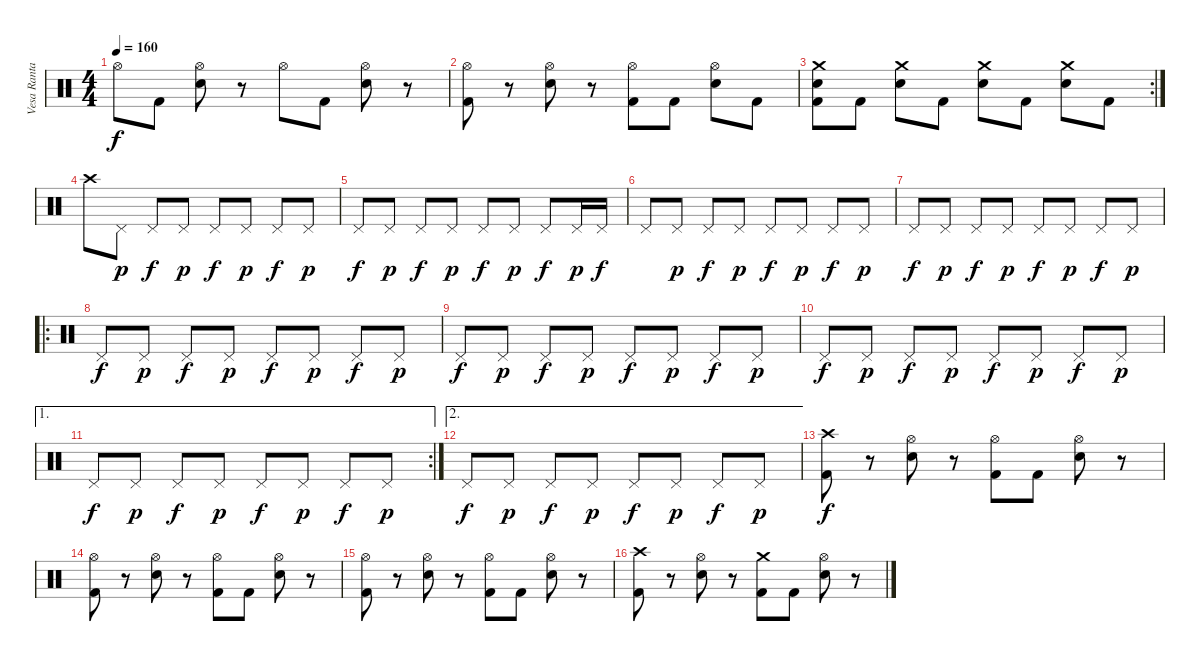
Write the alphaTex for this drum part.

\track ("Vesa Ranta" "Vesa Ranta") {instrument percussion}
\staff {score}
\articulation defaults
\ts (4 4)
\tempo 160
\clef neutral
\ks c "Hi-Hat (open)".8{dy f} "Kick (hit) 2".8
("Hi-Hat (open)" "Electric Snare (hit)").8 r.8 "Hi-Hat (open)".8 "Kick (hit) 2".8 ("Hi-Hat (open)" "Electric Snare (hit)").8 r.8 |
("Hi-Hat (open)" "Kick (hit) 2").8 r.8 ("Hi-Hat (open)" "Electric Snare (hit)").8 r.8 ("Hi-Hat (open)" "Kick (hit) 2").8 "Kick (hit) 2".8 ("Hi-Hat (open)" "Electric Snare (hit)").8 "Kick (hit) 2".8 |
\rc 2
("Crash medium (hit)" "Electric Snare (hit)" "Kick (hit) 2").8 "Kick (hit) 2".8 ("Crash medium (hit)" "Electric Snare (hit)").8 "Kick (hit) 2".8 ("Crash medium (hit)" "Electric Snare (hit)").8 "Kick (hit) 2".8 ("Crash medium (hit)" "Electric Snare (hit)").8 "Kick (hit) 2".8 |
"Crash high (hit)".8 "Pedal Hi-Hat (hit)".8{dy p} "Pedal Hi-Hat (hit)".8{dy f} "Pedal Hi-Hat (hit)".8{dy p} "Pedal Hi-Hat (hit)".8{dy f} "Pedal Hi-Hat (hit)".8{dy p} "Pedal Hi-Hat (hit)".8{dy f} "Pedal Hi-Hat (hit)".8{dy p} |
"Pedal Hi-Hat (hit)".8{dy f} "Pedal Hi-Hat (hit)".8{dy p} "Pedal Hi-Hat (hit)".8{dy f} "Pedal Hi-Hat (hit)".8{dy p} "Pedal Hi-Hat (hit)".8{dy f} "Pedal Hi-Hat (hit)".8{dy p} "Pedal Hi-Hat (hit)".8{dy f} "Pedal Hi-Hat (hit)".16{dy p} "Pedal Hi-Hat (hit)".16{dy f} |
"Pedal Hi-Hat (hit)".8 "Pedal Hi-Hat (hit)".8{dy p} "Pedal Hi-Hat (hit)".8{dy f} "Pedal Hi-Hat (hit)".8{dy p} "Pedal Hi-Hat (hit)".8{dy f} "Pedal Hi-Hat (hit)".8{dy p} "Pedal Hi-Hat (hit)".8{dy f} "Pedal Hi-Hat (hit)".8{dy p} |
"Pedal Hi-Hat (hit)".8{dy f} "Pedal Hi-Hat (hit)".8{dy p} "Pedal Hi-Hat (hit)".8{dy f} "Pedal Hi-Hat (hit)".8{dy p} "Pedal Hi-Hat (hit)".8{dy f} "Pedal Hi-Hat (hit)".8{dy p} "Pedal Hi-Hat (hit)".8{dy f} "Pedal Hi-Hat (hit)".8{dy p} |
\ro "Pedal Hi-Hat (hit)".8{dy f} "Pedal Hi-Hat (hit)".8{dy p} "Pedal Hi-Hat (hit)".8{dy f} "Pedal Hi-Hat (hit)".8{dy p} "Pedal Hi-Hat (hit)".8{dy f} "Pedal Hi-Hat (hit)".8{dy p} "Pedal Hi-Hat (hit)".8{dy f} "Pedal Hi-Hat (hit)".8{dy p}
|
"Pedal Hi-Hat (hit)".8{dy f} "Pedal Hi-Hat (hit)".8{dy p} "Pedal Hi-Hat (hit)".8{dy f} "Pedal Hi-Hat (hit)".8{dy p} "Pedal Hi-Hat (hit)".8{dy f} "Pedal Hi-Hat (hit)".8{dy p} "Pedal Hi-Hat (hit)".8{dy f} "Pedal Hi-Hat (hit)".8{dy p} |
"Pedal Hi-Hat (hit)".8{dy f} "Pedal Hi-Hat (hit)".8{dy p} "Pedal Hi-Hat (hit)".8{dy f} "Pedal Hi-Hat (hit)".8{dy p} "Pedal Hi-Hat (hit)".8{dy f} "Pedal Hi-Hat (hit)".8{dy p} "Pedal Hi-Hat (hit)".8{dy f} "Pedal Hi-Hat (hit)".8{dy p} |
\ae 1
\rc 2 "Pedal Hi-Hat (hit)".8{dy f} "Pedal Hi-Hat (hit)".8{dy p} "Pedal Hi-Hat (hit)".8{dy f} "Pedal Hi-Hat (hit)".8{dy p} "Pedal Hi-Hat (hit)".8{dy f} "Pedal Hi-Hat (hit)".8{dy p} "Pedal Hi-Hat (hit)".8{dy f} "Pedal Hi-Hat (hit)".8{dy p}
|
\ae 2 "Pedal Hi-Hat (hit)".8{dy f} "Pedal Hi-Hat (hit)".8{dy p} "Pedal Hi-Hat (hit)".8{dy f} "Pedal Hi-Hat (hit)".8{dy p} "Pedal Hi-Hat (hit)".8{dy f} "Pedal Hi-Hat (hit)".8{dy p} "Pedal Hi-Hat (hit)".8{dy f} "Pedal Hi-Hat (hit)".8{dy p}
|
("Crash high (hit)" "Kick (hit) 2").8{dy f} r.8 ("Hi-Hat (open)" "Electric Snare (hit)").8 r.8 ("Hi-Hat (open)" "Kick (hit) 2").8 "Kick (hit) 2".8 ("Hi-Hat (open)" "Electric Snare (hit)").8 r.8 |
("Hi-Hat (open)" "Kick (hit) 2").8 r.8 ("Hi-Hat (open)" "Electric Snare (hit)").8 r.8 ("Hi-Hat (open)" "Kick (hit) 2").8 "Kick (hit) 2".8 ("Hi-Hat (open)" "Electric Snare (hit)").8 r.8 |
("Hi-Hat (open)" "Kick (hit) 2").8 r.8 ("Hi-Hat (open)" "Electric Snare (hit)").8 r.8 ("Hi-Hat (open)" "Kick (hit) 2").8 "Kick (hit) 2".8 ("Hi-Hat (open)" "Electric Snare (hit)").8 r.8 |
("Crash high (hit)" "Kick (hit) 2").8 r.8 ("Hi-Hat (open)" "Electric Snare (hit)").8 r.8 ("Crash medium (hit)" "Kick (hit) 2").8 "Kick (hit) 2".8 ("Hi-Hat (open)" "Electric Snare (hit)").8 r.8
